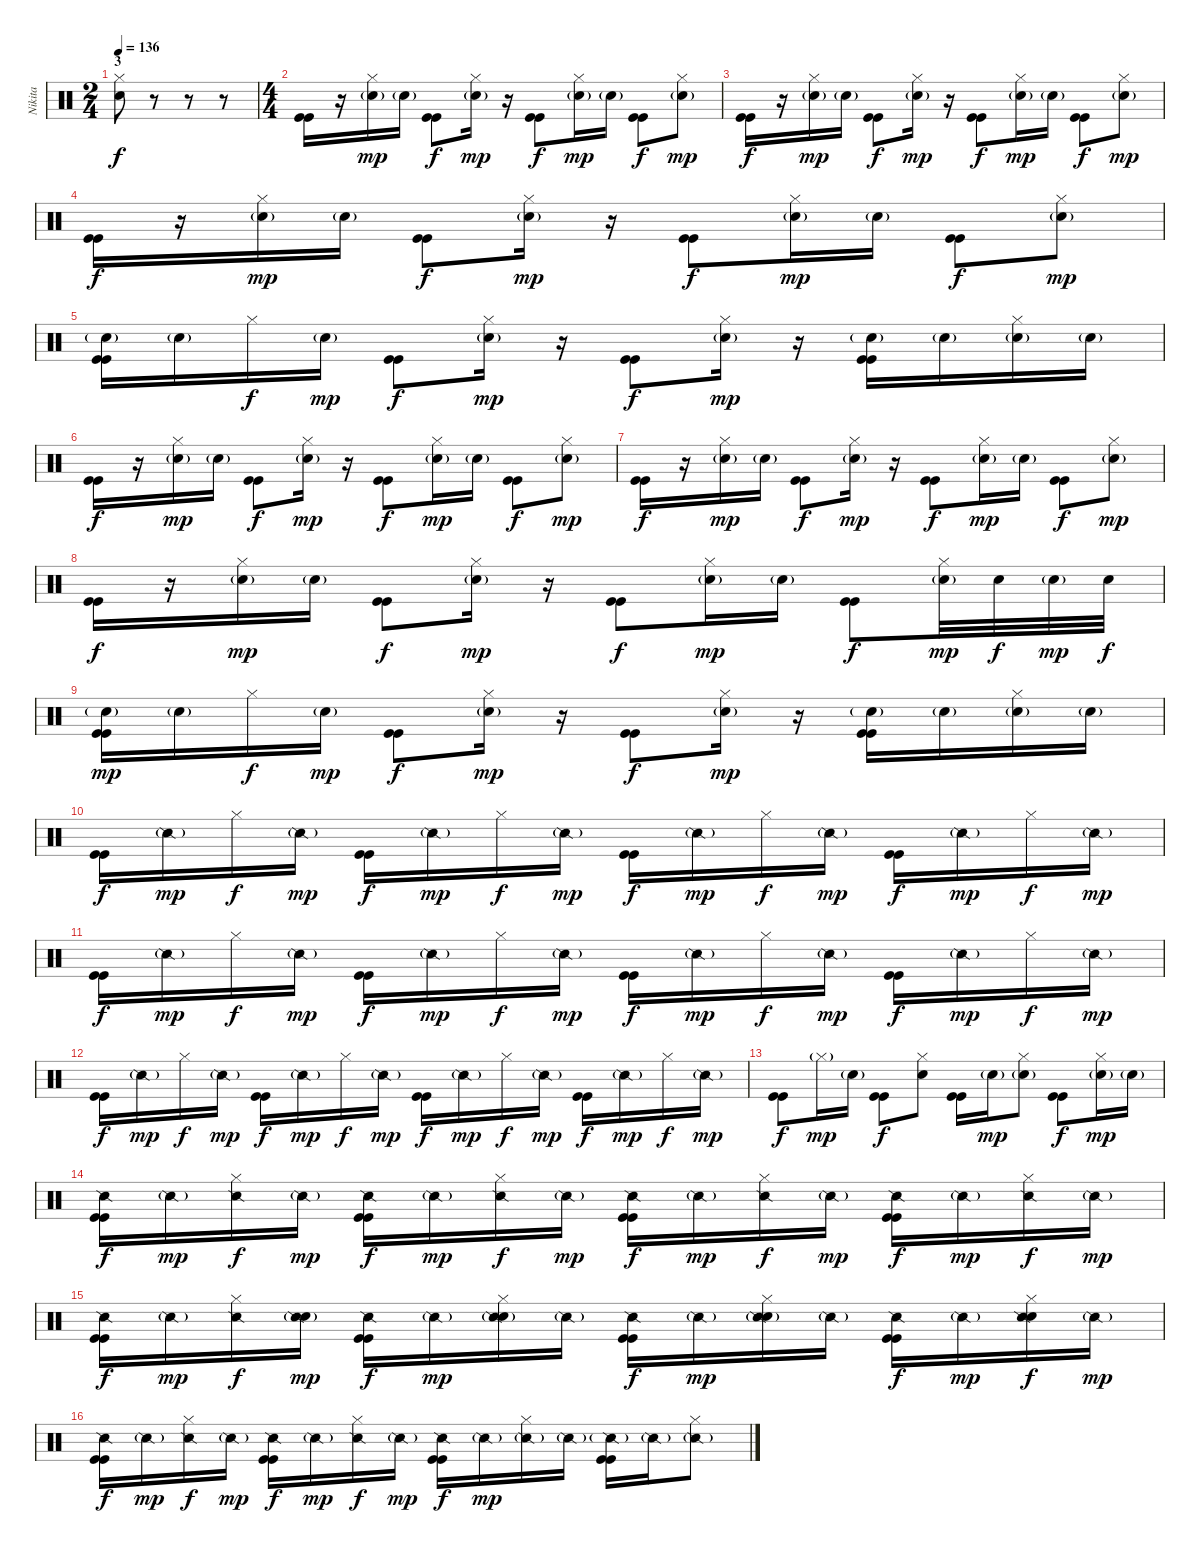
\track ("Nikita" "Nikita") {instrument percussion}
\staff {score}
\articulation defaults
\ts (2 4)
\section ("" "3")
\tempo 136
\clef neutral
\ks c
("Hi-Hat (closed)" "Snare (hit) 2").8{dy f} r.8 r.8 r.8 |
\ts (4 4)
("Kick (hit)" "Kick (hit)").16 r.16 ("Hi-Hat (closed)" "Snare (hit) 2"{g}).16{dy mp} "Snare (hit) 2"{g}.16 ("Kick (hit)" "Kick (hit)").8{dy f} ("Hi-Hat (closed)" "Snare (hit) 2"{g}).16{dy mp} r.16 ("Kick (hit)" "Kick (hit)").8{dy f} ("Hi-Hat (closed)" "Snare (hit) 2"{g}).16{dy mp} "Snare (hit) 2"{g}.16 ("Kick (hit)" "Kick (hit)").8{dy f} ("Hi-Hat (closed)" "Snare (hit) 2"{g}).8{dy mp} |
("Kick (hit)" "Kick (hit)").16{dy f} r.16 ("Hi-Hat (closed)" "Snare (hit) 2"{g}).16{dy mp} "Snare (hit) 2"{g}.16 ("Kick (hit)" "Kick (hit)").8{dy f} ("Hi-Hat (closed)" "Snare (hit) 2"{g}).16{dy mp} r.16 ("Kick (hit)" "Kick (hit)").8{dy f} ("Hi-Hat (closed)" "Snare (hit) 2"{g}).16{dy mp} "Snare (hit) 2"{g}.16 ("Kick (hit)" "Kick (hit)").8{dy f} ("Hi-Hat (closed)" "Snare (hit) 2"{g}).8{dy mp} |
("Kick (hit)" "Kick (hit)").16{dy f} r.16 ("Hi-Hat (closed)" "Snare (hit) 2"{g}).16{dy mp} "Snare (hit) 2"{g}.16 ("Kick (hit)" "Kick (hit)").8{dy f} ("Hi-Hat (closed)" "Snare (hit) 2"{g}).16{dy mp} r.16 ("Kick (hit)" "Kick (hit)").8{dy f} ("Hi-Hat (closed)" "Snare (hit) 2"{g}).16{dy mp} "Snare (hit) 2"{g}.16 ("Kick (hit)" "Kick (hit)").8{dy f} ("Hi-Hat (closed)" "Snare (hit) 2"{g}).8{dy mp} |
("Kick (hit)" "Kick (hit)" "Snare (hit) 2"{g}).16 "Snare (hit) 2"{g}.16 "Hi-Hat (closed)".16{dy f} "Snare (hit) 2"{g}.16{dy mp} ("Kick (hit)" "Kick (hit)").8{dy f} ("Hi-Hat (closed)" "Snare (hit) 2"{g}).16{dy mp} r.16 ("Kick (hit)" "Kick (hit)").8{dy f} ("Hi-Hat (closed)" "Snare (hit) 2"{g}).16{dy mp} r.16 ("Kick (hit)" "Kick (hit)" "Snare (hit) 2"{g}).16 "Snare (hit) 2"{g}.16 ("Hi-Hat (closed)" "Snare (hit) 2"{g}).16 "Snare (hit) 2"{g}.16 |
("Kick (hit)" "Kick (hit)").16{dy f} r.16 ("Hi-Hat (closed)" "Snare (hit) 2"{g}).16{dy mp} "Snare (hit) 2"{g}.16 ("Kick (hit)" "Kick (hit)").8{dy f} ("Hi-Hat (closed)" "Snare (hit) 2"{g}).16{dy mp} r.16 ("Kick (hit)" "Kick (hit)").8{dy f} ("Hi-Hat (closed)" "Snare (hit) 2"{g}).16{dy mp} "Snare (hit) 2"{g}.16 ("Kick (hit)" "Kick (hit)").8{dy f} ("Hi-Hat (closed)" "Snare (hit) 2"{g}).8{dy mp} |
("Kick (hit)" "Kick (hit)").16{dy f} r.16 ("Hi-Hat (closed)" "Snare (hit) 2"{g}).16{dy mp} "Snare (hit) 2"{g}.16 ("Kick (hit)" "Kick (hit)").8{dy f} ("Hi-Hat (closed)" "Snare (hit) 2"{g}).16{dy mp} r.16 ("Kick (hit)" "Kick (hit)").8{dy f} ("Hi-Hat (closed)" "Snare (hit) 2"{g}).16{dy mp} "Snare (hit) 2"{g}.16 ("Kick (hit)" "Kick (hit)").8{dy f} ("Hi-Hat (closed)" "Snare (hit) 2"{g}).8{dy mp} |
("Kick (hit)" "Kick (hit)").16{dy f} r.16 ("Hi-Hat (closed)" "Snare (hit) 2"{g}).16{dy mp} "Snare (hit) 2"{g}.16 ("Kick (hit)" "Kick (hit)").8{dy f} ("Hi-Hat (closed)" "Snare (hit) 2"{g}).16{dy mp} r.16 ("Kick (hit)" "Kick (hit)").8{dy f} ("Hi-Hat (closed)" "Snare (hit) 2"{g}).16{dy mp} "Snare (hit) 2"{g}.16 ("Kick (hit)" "Kick (hit)").8{dy f} ("Hi-Hat (closed)" "Snare (hit) 2"{g}).32{dy mp} "Snare (hit) 2".32{dy f} "Snare (hit) 2"{g}.32{dy mp} "Snare (hit) 2".32{dy f} |
("Kick (hit)" "Kick (hit)" "Snare (hit) 2"{g}).16{dy mp} "Snare (hit) 2"{g}.16 "Hi-Hat (closed)".16{dy f} "Snare (hit) 2"{g}.16{dy mp} ("Kick (hit)" "Kick (hit)").8{dy f} ("Hi-Hat (closed)" "Snare (hit) 2"{g}).16{dy mp} r.16 ("Kick (hit)" "Kick (hit)").8{dy f} ("Hi-Hat (closed)" "Snare (hit) 2"{g}).16{dy mp} r.16 ("Kick (hit)" "Kick (hit)" "Snare (hit) 2"{g}).16 "Snare (hit) 2"{g}.16 ("Hi-Hat (closed)" "Snare (hit) 2"{g}).16 "Snare (hit) 2"{g}.16 |
("Kick (hit)" "Kick (hit)").16{dy f} "Snare (side stick) 2"{g}.16{dy mp} "Hi-Hat (closed)".16{dy f} "Snare (side stick) 2"{g}.16{dy mp} ("Kick (hit)" "Kick (hit)").16{dy f} "Snare (side stick) 2"{g}.16{dy mp} "Hi-Hat (closed)".16{dy f} "Snare (side stick) 2"{g}.16{dy mp} ("Kick (hit)" "Kick (hit)").16{dy f} "Snare (side stick) 2"{g}.16{dy mp} "Hi-Hat (closed)".16{dy f} "Snare (side stick) 2"{g}.16{dy mp} ("Kick (hit)" "Kick (hit)").16{dy f} "Snare (side stick) 2"{g}.16{dy mp} "Hi-Hat (closed)".16{dy f} "Snare (side stick) 2"{g}.16{dy mp} |
("Kick (hit)" "Kick (hit)").16{dy f} "Snare (side stick) 2"{g}.16{dy mp} "Hi-Hat (closed)".16{dy f} "Snare (side stick) 2"{g}.16{dy mp} ("Kick (hit)" "Kick (hit)").16{dy f} "Snare (side stick) 2"{g}.16{dy mp} "Hi-Hat (closed)".16{dy f} "Snare (side stick) 2"{g}.16{dy mp} ("Kick (hit)" "Kick (hit)").16{dy f} "Snare (side stick) 2"{g}.16{dy mp} "Hi-Hat (closed)".16{dy f} "Snare (side stick) 2"{g}.16{dy mp} ("Kick (hit)" "Kick (hit)").16{dy f} "Snare (side stick) 2"{g}.16{dy mp} "Hi-Hat (closed)".16{dy f} "Snare (side stick) 2"{g}.16{dy mp} |
("Kick (hit)" "Kick (hit)").16{dy f} "Snare (side stick) 2"{g}.16{dy mp} "Hi-Hat (closed)".16{dy f} "Snare (side stick) 2"{g}.16{dy mp} ("Kick (hit)" "Kick (hit)").16{dy f} "Snare (side stick) 2"{g}.16{dy mp} "Hi-Hat (closed)".16{dy f} "Snare (side stick) 2"{g}.16{dy mp} ("Kick (hit)" "Kick (hit)").16{dy f} "Snare (side stick) 2"{g}.16{dy mp} "Hi-Hat (closed)".16{dy f} "Snare (side stick) 2"{g}.16{dy mp} ("Kick (hit)" "Kick (hit)").16{dy f} "Snare (side stick) 2"{g}.16{dy mp} "Hi-Hat (closed)".16{dy f} "Snare (side stick) 2"{g}.16{dy mp} |
("Kick (hit)" "Kick (hit)").8{dy f} "Hi-Hat (closed)"{g}.16{dy mp} "Snare (hit) 2"{g}.16 ("Kick (hit)" "Kick (hit)").8{dy f} ("Hi-Hat (closed)" "Snare (hit) 2").8 ("Kick (hit)" "Kick (hit)").16 "Snare (hit) 2"{g}.16{dy mp} ("Hi-Hat (closed)" "Snare (hit) 2"{g}).8 ("Kick (hit)" "Kick (hit)").8{dy f} ("Hi-Hat (closed)" "Snare (hit) 2"{g}).16{dy mp} "Snare (hit) 2"{g}.16 |
("Kick (hit)" "Kick (hit)" "Snare (side stick) 2").16{dy f} "Snare (side stick) 2"{g}.16{dy mp} ("Hi-Hat (closed)" "Snare (side stick) 2").16{dy f} "Snare (side stick) 2"{g}.16{dy mp} ("Kick (hit)" "Kick (hit)" "Snare (side stick) 2").16{dy f} "Snare (side stick) 2"{g}.16{dy mp} ("Hi-Hat (closed)" "Snare (side stick) 2").16{dy f} "Snare (side stick) 2"{g}.16{dy mp} ("Kick (hit)" "Kick (hit)" "Snare (side stick) 2").16{dy f} "Snare (side stick) 2"{g}.16{dy mp} ("Hi-Hat (closed)" "Snare (side stick) 2").16{dy f} "Snare (side stick) 2"{g}.16{dy mp} ("Kick (hit)" "Kick (hit)" "Snare (side stick) 2").16{dy f} "Snare (side stick) 2"{g}.16{dy mp} ("Hi-Hat (closed)" "Snare (side stick) 2").16{dy f} "Snare (side stick) 2"{g}.16{dy mp} |
("Kick (hit)" "Kick (hit)" "Snare (side stick) 2").16{dy f} "Snare (side stick) 2"{g}.16{dy mp} ("Hi-Hat (closed)" "Snare (side stick) 2").16{dy f} ("Snare (hit) 2"{g} "Snare (side stick) 2"{g}).16{dy mp} ("Kick (hit)" "Kick (hit)" "Snare (side stick) 2").16{dy f} "Snare (side stick) 2"{g}.16{dy mp} ("Hi-Hat (closed)" "Snare (hit) 2"{g} "Snare (side stick) 2").16 "Snare (side stick) 2"{g}.16 ("Kick (hit)" "Kick (hit)" "Snare (side stick) 2").16{dy f} "Snare (side stick) 2"{g}.16{dy mp} ("Hi-Hat (closed)" "Snare (hit) 2"{g} "Snare (side stick) 2").16 "Snare (side stick) 2"{g}.16 ("Kick (hit)" "Kick (hit)" "Snare (side stick) 2").16{dy f} "Snare (side stick) 2"{g}.16{dy mp} ("Hi-Hat (closed)" "Snare (hit) 2" "Snare (side stick) 2").16{dy f} "Snare (side stick) 2"{g}.16{dy mp} |
("Kick (hit)" "Kick (hit)" "Snare (side stick) 2").16{dy f} "Snare (side stick) 2"{g}.16{dy mp} ("Hi-Hat (closed)" "Snare (side stick) 2").16{dy f} "Snare (side stick) 2"{g}.16{dy mp} ("Kick (hit)" "Kick (hit)" "Snare (side stick) 2").16{dy f} "Snare (side stick) 2"{g}.16{dy mp} ("Hi-Hat (closed)" "Snare (side stick) 2").16{dy f} "Snare (side stick) 2"{g}.16{dy mp} ("Kick (hit)" "Kick (hit)" "Snare (side stick) 2").16{dy f} "Snare (side stick) 2"{g}.16{dy mp} ("Hi-Hat (closed)" "Snare (side stick) 2"{g}).16 "Snare (side stick) 2"{g}.16 ("Kick (hit)" "Kick (hit)" "Snare (side stick) 2"{g}).16 "Snare (side stick) 2"{g}.16 ("Hi-Hat (closed)" "Snare (side stick) 2"{g}).8
